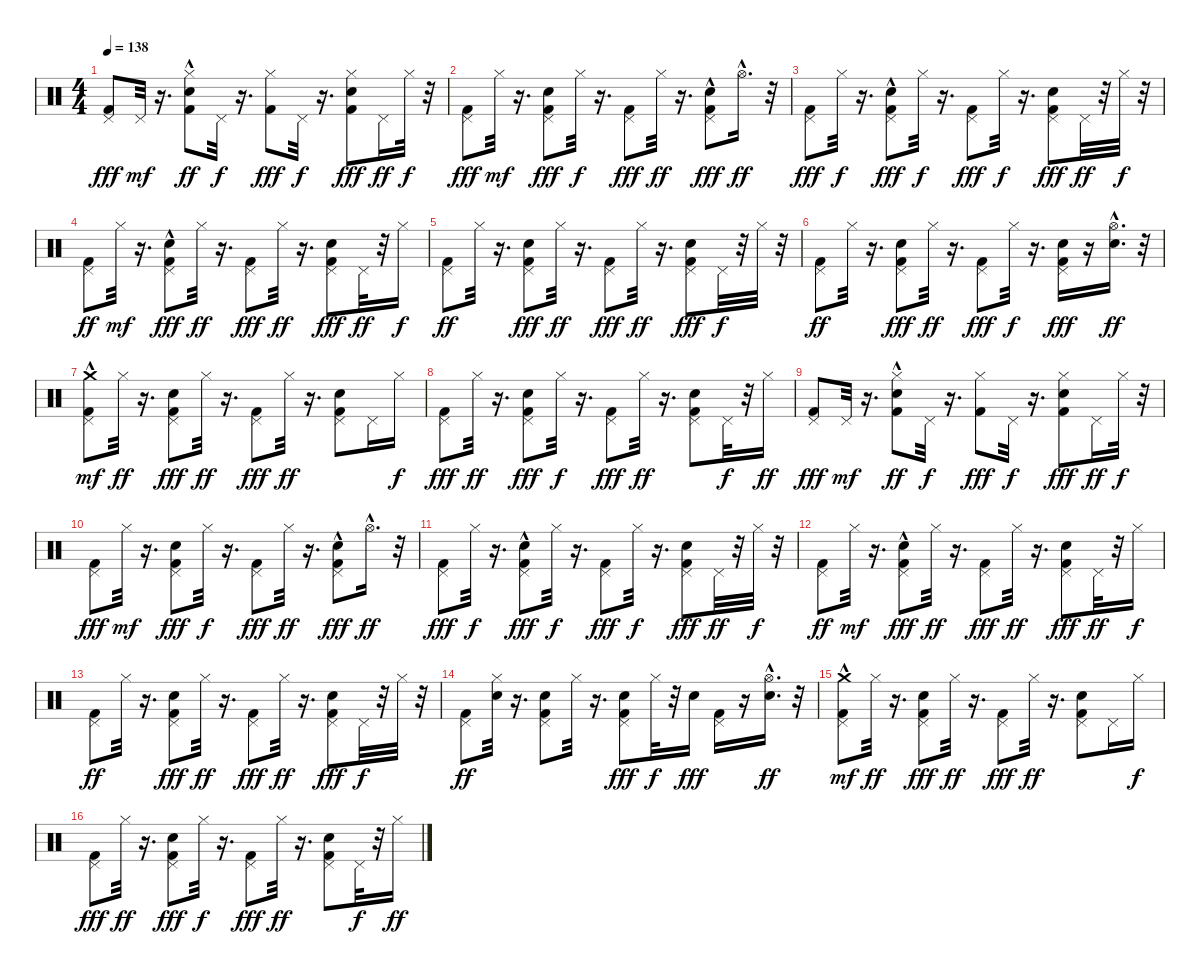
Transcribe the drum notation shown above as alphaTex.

\track "" {instrument percussion}
\staff {score}
\articulation defaults
\ts (4 4)
\tempo 138
\clef neutral
\ks c
("Kick (hit) 2" "Pedal Hi-Hat (hit)").8{dy fff} "Pedal Hi-Hat (hit)".32{dy mf} r.16{d} ("Snare (hit) 2"{hac} "Kick (hit) 2" "Hi-Hat (closed)").8{dy ff} "Pedal Hi-Hat (hit)".32{dy f} r.16{d} ("Hi-Hat (closed)" "Kick (hit) 2").8{dy fff} "Pedal Hi-Hat (hit)".32{dy f} r.16{d} ("Snare (hit) 2" "Hi-Hat (closed)" "Kick (hit) 2").8{dy fff} "Pedal Hi-Hat (hit)".16{dy ff} "Hi-Hat (closed)".32{dy f} r.32 |
("Kick (hit) 2" "Pedal Hi-Hat (hit)").8{dy fff} "Hi-Hat (closed)".32{dy mf} r.16{d} ("Snare (hit) 2" "Kick (hit) 2" "Pedal Hi-Hat (hit)").8{dy fff} "Hi-Hat (closed)".32{dy f} r.16{d} ("Pedal Hi-Hat (hit)" "Kick (hit) 2").8{dy fff} "Hi-Hat (closed)".32{dy ff} r.16{d} ("Pedal Hi-Hat (hit)" "Snare (hit) 2"{hac} "Kick (hit) 2").8{dy fff} "Hi-Hat (open)"{hac}.16{d dy ff} r.32 |
("Kick (hit) 2" "Pedal Hi-Hat (hit)").8{dy fff} "Hi-Hat (closed)".32{dy f} r.16{d} ("Pedal Hi-Hat (hit)" "Snare (hit) 2"{hac} "Kick (hit) 2").8{dy fff} "Hi-Hat (closed)".32{dy f} r.16{d} ("Kick (hit) 2" "Pedal Hi-Hat (hit)").8{dy fff} "Hi-Hat (closed)".32{dy f} r.16{d} ("Kick (hit) 2" "Snare (hit) 2" "Pedal Hi-Hat (hit)").8{dy fff} "Pedal Hi-Hat (hit)".32{dy ff} r.32 "Hi-Hat (closed)".32{dy f} r.32 |
("Kick (hit) 2" "Pedal Hi-Hat (hit)").8{dy ff} "Hi-Hat (closed)".32{dy mf} r.16{d} ("Snare (hit) 2"{hac} "Kick (hit) 2" "Pedal Hi-Hat (hit)").8{dy fff} "Hi-Hat (closed)".32{dy ff} r.16{d} ("Pedal Hi-Hat (hit)" "Kick (hit) 2").8{dy fff} "Hi-Hat (closed)".32{dy ff} r.16{d} ("Snare (hit) 2" "Kick (hit) 2" "Pedal Hi-Hat (hit)").8{dy fff} "Pedal Hi-Hat (hit)".32{dy ff} r.32 "Hi-Hat (closed)".16{dy f} |
("Kick (hit) 2" "Pedal Hi-Hat (hit)").8{dy ff} "Hi-Hat (closed)".32 r.16{d} ("Pedal Hi-Hat (hit)" "Snare (hit) 2" "Kick (hit) 2").8{dy fff} "Hi-Hat (closed)".32{dy ff} r.16{d} ("Kick (hit) 2" "Pedal Hi-Hat (hit)").8{dy fff} "Hi-Hat (closed)".32{dy ff} r.16{d} ("Pedal Hi-Hat (hit)" "Snare (hit) 2" "Kick (hit) 2").8{dy fff} "Pedal Hi-Hat (hit)".32{dy f} r.32 "Hi-Hat (closed)".32 r.32 |
("Kick (hit) 2" "Pedal Hi-Hat (hit)").8{dy ff} "Hi-Hat (closed)".32 r.16{d} ("Snare (hit) 2" "Pedal Hi-Hat (hit)" "Kick (hit) 2").8{dy fff} "Hi-Hat (closed)".32{dy ff} r.16{d} ("Kick (hit) 2" "Pedal Hi-Hat (hit)").8{dy fff} "Hi-Hat (closed)".32{dy f} r.16{d} ("Pedal Hi-Hat (hit)" "Snare (hit) 2" "Kick (hit) 2").16{dy fff} r.16 ("Snare (hit) 2" "Hi-Hat (open)"{hac}).16{d dy ff} r.32 |
("Kick (hit) 2" "Pedal Hi-Hat (hit)" "Crash medium (hit)"{hac}).8{dy mf} "Hi-Hat (closed)".32{dy ff} r.16{d} ("Pedal Hi-Hat (hit)" "Kick (hit) 2" "Snare (hit) 2").8{dy fff} "Hi-Hat (closed)".32{dy ff} r.16{d} ("Pedal Hi-Hat (hit)" "Kick (hit) 2").8{dy fff} "Hi-Hat (closed)".32{dy ff} r.16{d} ("Snare (hit) 2" "Kick (hit) 2" "Pedal Hi-Hat (hit)").8 "Pedal Hi-Hat (hit)".16 "Hi-Hat (closed)".16{dy f} |
("Kick (hit) 2" "Pedal Hi-Hat (hit)").8{dy fff} "Hi-Hat (closed)".32{dy ff} r.16{d} ("Kick (hit) 2" "Snare (hit) 2" "Pedal Hi-Hat (hit)").8{dy fff} "Hi-Hat (closed)".32{dy f} r.16{d} ("Pedal Hi-Hat (hit)" "Kick (hit) 2").8{dy fff} "Hi-Hat (closed)".32{dy ff} r.16{d} ("Kick (hit) 2" "Snare (hit) 2" "Pedal Hi-Hat (hit)").8 "Pedal Hi-Hat (hit)".32{dy f} r.32 "Hi-Hat (closed)".16{dy ff} |
("Kick (hit) 2" "Pedal Hi-Hat (hit)").8{dy fff} "Pedal Hi-Hat (hit)".32{dy mf} r.16{d} ("Snare (hit) 2"{hac} "Kick (hit) 2" "Hi-Hat (closed)").8{dy ff} "Pedal Hi-Hat (hit)".32{dy f} r.16{d} ("Hi-Hat (closed)" "Kick (hit) 2").8{dy fff} "Pedal Hi-Hat (hit)".32{dy f} r.16{d} ("Snare (hit) 2" "Hi-Hat (closed)" "Kick (hit) 2").8{dy fff} "Pedal Hi-Hat (hit)".16{dy ff} "Hi-Hat (closed)".32{dy f} r.32 |
("Kick (hit) 2" "Pedal Hi-Hat (hit)").8{dy fff} "Hi-Hat (closed)".32{dy mf} r.16{d} ("Snare (hit) 2" "Kick (hit) 2" "Pedal Hi-Hat (hit)").8{dy fff} "Hi-Hat (closed)".32{dy f} r.16{d} ("Pedal Hi-Hat (hit)" "Kick (hit) 2").8{dy fff} "Hi-Hat (closed)".32{dy ff} r.16{d} ("Pedal Hi-Hat (hit)" "Snare (hit) 2"{hac} "Kick (hit) 2").8{dy fff} "Hi-Hat (open)"{hac}.16{d dy ff} r.32 |
("Kick (hit) 2" "Pedal Hi-Hat (hit)").8{dy fff} "Hi-Hat (closed)".32{dy f} r.16{d} ("Pedal Hi-Hat (hit)" "Snare (hit) 2"{hac} "Kick (hit) 2").8{dy fff} "Hi-Hat (closed)".32{dy f} r.16{d} ("Kick (hit) 2" "Pedal Hi-Hat (hit)").8{dy fff} "Hi-Hat (closed)".32{dy f} r.16{d} ("Kick (hit) 2" "Snare (hit) 2" "Pedal Hi-Hat (hit)").8{dy fff} "Pedal Hi-Hat (hit)".32{dy ff} r.32 "Hi-Hat (closed)".32{dy f} r.32 |
("Kick (hit) 2" "Pedal Hi-Hat (hit)").8{dy ff} "Hi-Hat (closed)".32{dy mf} r.16{d} ("Snare (hit) 2"{hac} "Kick (hit) 2" "Pedal Hi-Hat (hit)").8{dy fff} "Hi-Hat (closed)".32{dy ff} r.16{d} ("Pedal Hi-Hat (hit)" "Kick (hit) 2").8{dy fff} "Hi-Hat (closed)".32{dy ff} r.16{d} ("Snare (hit) 2" "Kick (hit) 2" "Pedal Hi-Hat (hit)").8{dy fff} "Pedal Hi-Hat (hit)".32{dy ff} r.32 "Hi-Hat (closed)".16{dy f} |
("Kick (hit) 2" "Pedal Hi-Hat (hit)").8{dy ff} "Hi-Hat (closed)".32 r.16{d} ("Pedal Hi-Hat (hit)" "Snare (hit) 2" "Kick (hit) 2").8{dy fff} "Hi-Hat (closed)".32{dy ff} r.16{d} ("Kick (hit) 2" "Pedal Hi-Hat (hit)").8{dy fff} "Hi-Hat (closed)".32{dy ff} r.16{d} ("Pedal Hi-Hat (hit)" "Snare (hit) 2" "Kick (hit) 2").8{dy fff} "Pedal Hi-Hat (hit)".32{dy f} r.32 "Hi-Hat (closed)".32 r.32 |
("Kick (hit) 2" "Pedal Hi-Hat (hit)").8{dy ff} ("Hi-Hat (closed)" "Snare (hit) 2").32 r.16{d} ("Pedal Hi-Hat (hit)" "Kick (hit) 2" "Snare (hit) 2").8 "Hi-Hat (closed)".32 r.16{d} ("Snare (hit) 2" "Kick (hit) 2" "Pedal Hi-Hat (hit)").8{dy fff} "Hi-Hat (closed)".32{dy f} r.32 "Snare (hit) 2".16{dy fff} ("Pedal Hi-Hat (hit)" "Kick (hit) 2").16 r.16 ("Snare (hit) 2" "Hi-Hat (open)"{hac}).16{d dy ff} r.32 |
("Kick (hit) 2" "Pedal Hi-Hat (hit)" "Crash medium (hit)"{hac}).8{dy mf} "Hi-Hat (closed)".32{dy ff} r.16{d} ("Pedal Hi-Hat (hit)" "Kick (hit) 2" "Snare (hit) 2").8{dy fff} "Hi-Hat (closed)".32{dy ff} r.16{d} ("Pedal Hi-Hat (hit)" "Kick (hit) 2").8{dy fff} "Hi-Hat (closed)".32{dy ff} r.16{d} ("Snare (hit) 2" "Kick (hit) 2" "Pedal Hi-Hat (hit)").8 "Pedal Hi-Hat (hit)".16 "Hi-Hat (closed)".16{dy f} |
("Kick (hit) 2" "Pedal Hi-Hat (hit)").8{dy fff} "Hi-Hat (closed)".32{dy ff} r.16{d} ("Kick (hit) 2" "Snare (hit) 2" "Pedal Hi-Hat (hit)").8{dy fff} "Hi-Hat (closed)".32{dy f} r.16{d} ("Pedal Hi-Hat (hit)" "Kick (hit) 2").8{dy fff} "Hi-Hat (closed)".32{dy ff} r.16{d} ("Kick (hit) 2" "Snare (hit) 2" "Pedal Hi-Hat (hit)").8 "Pedal Hi-Hat (hit)".32{dy f} r.32 "Hi-Hat (closed)".16{dy ff}
